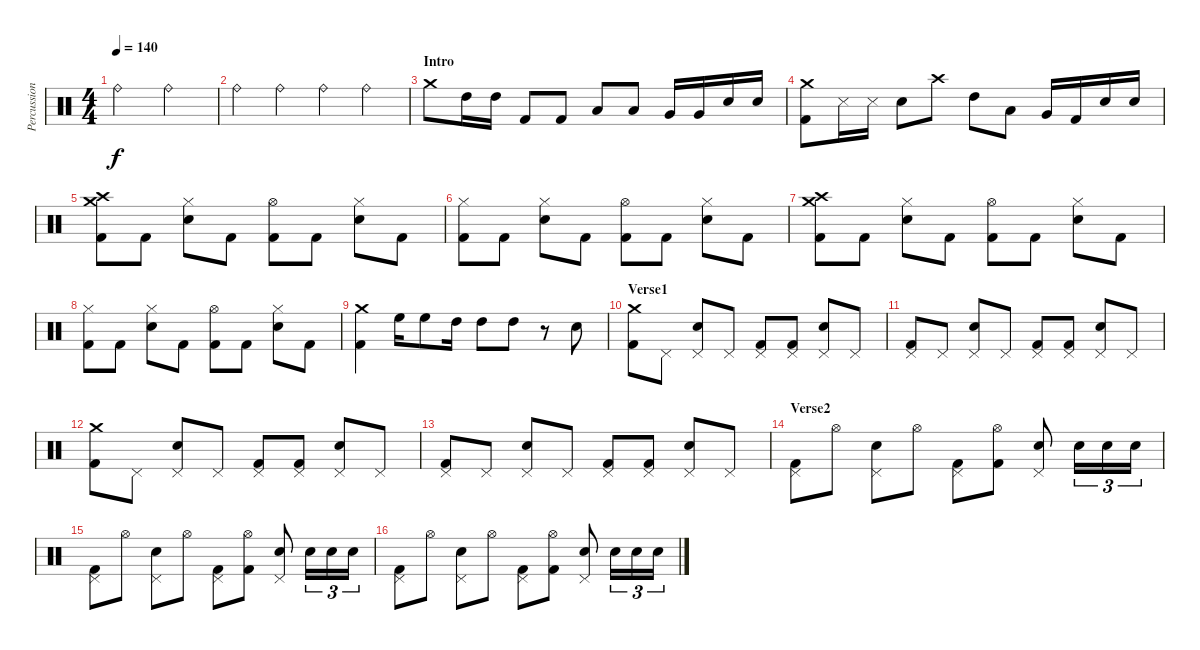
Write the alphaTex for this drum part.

\track ("Percussioni" "Percussion") {instrument percussion}
\staff {score}
\articulation defaults
\ts (4 4)
\tempo 140
\clef neutral
\ks c "Ride (bell)".2{dy f} "Ride (bell)".2
|
"Ride (bell)".4 "Ride (bell)".4 "Ride (bell)".4 "Ride (bell)".4 |
\section ("" "Intro")
"Crash medium (hit)".8 "High Tom (hit)".16 "High Tom (hit)".16 "Kick (hit) 2".8 "Kick (hit) 2".8 "Low Tom (hit)".8 "Low Tom (hit)".8 "Very Low Tom (hit)".16 "Very Low Tom (hit)".16 "Electric Snare (hit)".16 "Electric Snare (hit)".16 |
("Crash medium (hit)" "Kick (hit) 2").8 "Snare (side stick) 3".16 "Snare (side stick) 3".16 "Electric Snare (hit)".8 "Crash high (hit)".8 "High Tom (hit)".8 "Low Tom (hit)".8 "Very Low Tom (hit)".16 "Kick (hit) 2".16 "Electric Snare (hit)".16 "Electric Snare (hit)".16 |
("Crash medium (hit)" "Crash high (hit)" "Kick (hit) 2").8 "Kick (hit) 2".8 ("Hi-Hat (closed)" "Electric Snare (hit)").8 "Kick (hit) 2".8 ("Hi-Hat (open)" "Kick (hit) 2").8 "Kick (hit) 2".8 ("Hi-Hat (closed)" "Electric Snare (hit)").8 "Kick (hit) 2".8 |
("Hi-Hat (closed)" "Kick (hit) 2").8 "Kick (hit) 2".8 ("Hi-Hat (closed)" "Electric Snare (hit)").8 "Kick (hit) 2".8 ("Hi-Hat (open)" "Kick (hit) 2").8 "Kick (hit) 2".8 ("Hi-Hat (closed)" "Electric Snare (hit)").8 "Kick (hit) 2".8 |
("Crash medium (hit)" "Crash high (hit)" "Kick (hit) 2").8 "Kick (hit) 2".8 ("Hi-Hat (closed)" "Electric Snare (hit)").8 "Kick (hit) 2".8 ("Hi-Hat (open)" "Kick (hit) 2").8 "Kick (hit) 2".8 ("Hi-Hat (closed)" "Electric Snare (hit)").8 "Kick (hit) 2".8 |
("Hi-Hat (closed)" "Kick (hit) 2").8 "Kick (hit) 2".8 ("Hi-Hat (closed)" "Electric Snare (hit)").8 "Kick (hit) 2".8 ("Hi-Hat (open)" "Kick (hit) 2").8 "Kick (hit) 2".8 ("Hi-Hat (closed)" "Electric Snare (hit)").8 "Kick (hit) 2".8 |
("Crash medium (hit)" "Kick (hit) 2").4 "High Floor Tom (hit)".16 "High Floor Tom (hit)".8 "High Tom (hit)".16 "High Tom (hit)".8 "High Tom (hit)".8 r.8 "Electric Snare (hit)".8 |
\section ("" "Verse1 ")
("Crash medium (hit)" "Kick (hit) 2").8 "Pedal Hi-Hat (hit)".8 ("Pedal Hi-Hat (hit)" "Electric Snare (hit)").8 "Pedal Hi-Hat (hit)".8 ("Pedal Hi-Hat (hit)" "Kick (hit) 2").8 ("Pedal Hi-Hat (hit)" "Kick (hit) 2").8 ("Pedal Hi-Hat (hit)" "Electric Snare (hit)").8 "Pedal Hi-Hat (hit)".8 |
("Pedal Hi-Hat (hit)" "Kick (hit) 2").8 "Pedal Hi-Hat (hit)".8 ("Pedal Hi-Hat (hit)" "Electric Snare (hit)").8 "Pedal Hi-Hat (hit)".8 ("Pedal Hi-Hat (hit)" "Kick (hit) 2").8 ("Pedal Hi-Hat (hit)" "Kick (hit) 2").8 ("Pedal Hi-Hat (hit)" "Electric Snare (hit)").8 "Pedal Hi-Hat (hit)".8 |
("Crash medium (hit)" "Kick (hit) 2").8 "Pedal Hi-Hat (hit)".8 ("Pedal Hi-Hat (hit)" "Electric Snare (hit)").8 "Pedal Hi-Hat (hit)".8 ("Pedal Hi-Hat (hit)" "Kick (hit) 2").8 ("Pedal Hi-Hat (hit)" "Kick (hit) 2").8 ("Pedal Hi-Hat (hit)" "Electric Snare (hit)").8 "Pedal Hi-Hat (hit)".8 |
("Pedal Hi-Hat (hit)" "Kick (hit) 2").8 "Pedal Hi-Hat (hit)".8 ("Pedal Hi-Hat (hit)" "Electric Snare (hit)").8 "Pedal Hi-Hat (hit)".8 ("Pedal Hi-Hat (hit)" "Kick (hit) 2").8 ("Pedal Hi-Hat (hit)" "Kick (hit) 2").8 ("Pedal Hi-Hat (hit)" "Electric Snare (hit)").8 "Pedal Hi-Hat (hit)".8 |
\section ("" "Verse2")
("Pedal Hi-Hat (hit)" "Kick (hit) 2").8 "Hi-Hat (open)".8 ("Pedal Hi-Hat (hit)" "Electric Snare (hit)").8 "Hi-Hat (open)".8 ("Pedal Hi-Hat (hit)" "Kick (hit) 2").8 ("Hi-Hat (open)" "Kick (hit) 2").8 ("Pedal Hi-Hat (hit)" "Electric Snare (hit)").8 "Electric Snare (hit)".16{tu (3 2)} "Electric Snare (hit)".16{tu (3 2)} "Electric Snare (hit)".16{tu (3 2)} |
("Pedal Hi-Hat (hit)" "Kick (hit) 2").8 "Hi-Hat (open)".8 ("Pedal Hi-Hat (hit)" "Electric Snare (hit)").8 "Hi-Hat (open)".8 ("Pedal Hi-Hat (hit)" "Kick (hit) 2").8 ("Hi-Hat (open)" "Kick (hit) 2").8 ("Pedal Hi-Hat (hit)" "Electric Snare (hit)").8 "Electric Snare (hit)".16{tu (3 2)} "Electric Snare (hit)".16{tu (3 2)} "Electric Snare (hit)".16{tu (3 2)} |
("Pedal Hi-Hat (hit)" "Kick (hit) 2").8 "Hi-Hat (open)".8 ("Pedal Hi-Hat (hit)" "Electric Snare (hit)").8 "Hi-Hat (open)".8 ("Pedal Hi-Hat (hit)" "Kick (hit) 2").8 ("Hi-Hat (open)" "Kick (hit) 2").8 ("Pedal Hi-Hat (hit)" "Electric Snare (hit)").8 "Electric Snare (hit)".16{tu (3 2)} "Electric Snare (hit)".16{tu (3 2)} "Electric Snare (hit)".16{tu (3 2)}
